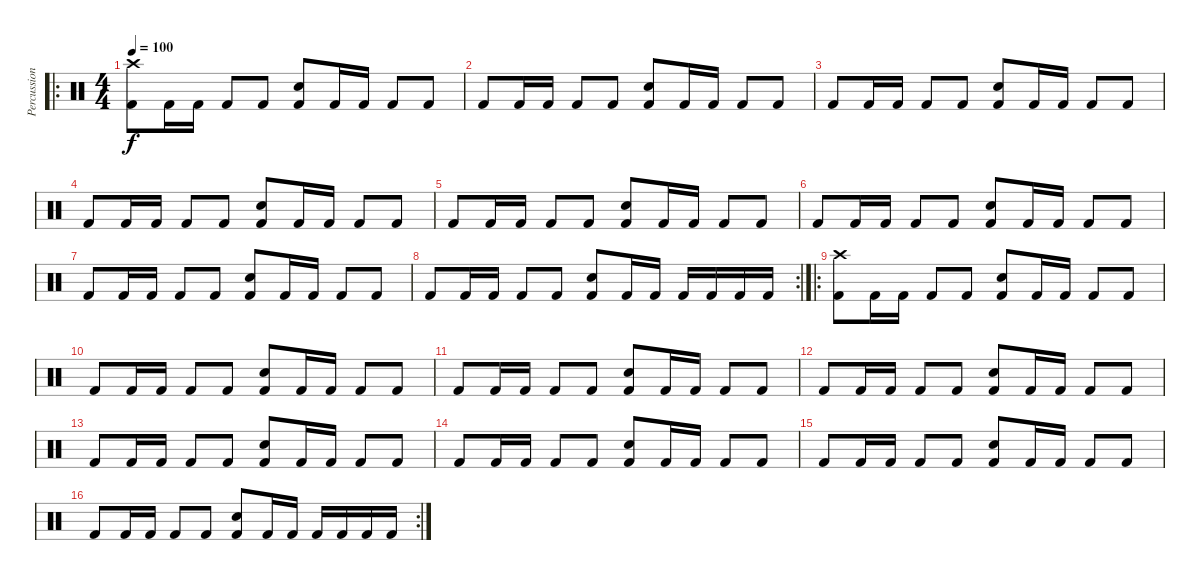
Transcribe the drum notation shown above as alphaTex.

\track ("Percussions" "Percussion") {instrument percussion}
\staff {score}
\articulation defaults
\ro
\ts (4 4)
\tempo 100
\clef neutral
\ks c
("Crash high (hit)" "Kick (hit) 2").8{dy f} "Kick (hit) 2".16 "Kick (hit) 2".16 "Kick (hit) 2".8 "Kick (hit) 2".8 ("Snare (hit) 2" "Kick (hit) 2").8 "Kick (hit) 2".16 "Kick (hit) 2".16 "Kick (hit) 2".8 "Kick (hit) 2".8 |
"Kick (hit) 2".8 "Kick (hit) 2".16 "Kick (hit) 2".16 "Kick (hit) 2".8 "Kick (hit) 2".8 ("Snare (hit) 2" "Kick (hit) 2").8 "Kick (hit) 2".16 "Kick (hit) 2".16 "Kick (hit) 2".8 "Kick (hit) 2".8 |
"Kick (hit) 2".8 "Kick (hit) 2".16 "Kick (hit) 2".16 "Kick (hit) 2".8 "Kick (hit) 2".8 ("Snare (hit) 2" "Kick (hit) 2").8 "Kick (hit) 2".16 "Kick (hit) 2".16 "Kick (hit) 2".8 "Kick (hit) 2".8 |
"Kick (hit) 2".8 "Kick (hit) 2".16 "Kick (hit) 2".16 "Kick (hit) 2".8 "Kick (hit) 2".8 ("Snare (hit) 2" "Kick (hit) 2").8 "Kick (hit) 2".16 "Kick (hit) 2".16 "Kick (hit) 2".8 "Kick (hit) 2".8 |
"Kick (hit) 2".8 "Kick (hit) 2".16 "Kick (hit) 2".16 "Kick (hit) 2".8 "Kick (hit) 2".8 ("Snare (hit) 2" "Kick (hit) 2").8 "Kick (hit) 2".16 "Kick (hit) 2".16 "Kick (hit) 2".8 "Kick (hit) 2".8 |
"Kick (hit) 2".8 "Kick (hit) 2".16 "Kick (hit) 2".16 "Kick (hit) 2".8 "Kick (hit) 2".8 ("Snare (hit) 2" "Kick (hit) 2").8 "Kick (hit) 2".16 "Kick (hit) 2".16 "Kick (hit) 2".8 "Kick (hit) 2".8 |
"Kick (hit) 2".8 "Kick (hit) 2".16 "Kick (hit) 2".16 "Kick (hit) 2".8 "Kick (hit) 2".8 ("Snare (hit) 2" "Kick (hit) 2").8 "Kick (hit) 2".16 "Kick (hit) 2".16 "Kick (hit) 2".8 "Kick (hit) 2".8 |
\rc 2 "Kick (hit) 2".8 "Kick (hit) 2".16 "Kick (hit) 2".16 "Kick (hit) 2".8 "Kick (hit) 2".8
("Snare (hit) 2" "Kick (hit) 2").8 "Kick (hit) 2".16 "Kick (hit) 2".16 "Kick (hit) 2".16 "Kick (hit) 2".16 "Kick (hit) 2".16 "Kick (hit) 2".16 |
\ro
("Crash high (hit)" "Kick (hit) 2").8 "Kick (hit) 2".16 "Kick (hit) 2".16 "Kick (hit) 2".8 "Kick (hit) 2".8 ("Snare (hit) 2" "Kick (hit) 2").8 "Kick (hit) 2".16 "Kick (hit) 2".16 "Kick (hit) 2".8 "Kick (hit) 2".8 |
"Kick (hit) 2".8 "Kick (hit) 2".16 "Kick (hit) 2".16 "Kick (hit) 2".8 "Kick (hit) 2".8 ("Snare (hit) 2" "Kick (hit) 2").8 "Kick (hit) 2".16 "Kick (hit) 2".16 "Kick (hit) 2".8 "Kick (hit) 2".8 |
"Kick (hit) 2".8 "Kick (hit) 2".16 "Kick (hit) 2".16 "Kick (hit) 2".8 "Kick (hit) 2".8 ("Snare (hit) 2" "Kick (hit) 2").8 "Kick (hit) 2".16 "Kick (hit) 2".16 "Kick (hit) 2".8 "Kick (hit) 2".8 |
"Kick (hit) 2".8 "Kick (hit) 2".16 "Kick (hit) 2".16 "Kick (hit) 2".8 "Kick (hit) 2".8 ("Snare (hit) 2" "Kick (hit) 2").8 "Kick (hit) 2".16 "Kick (hit) 2".16 "Kick (hit) 2".8 "Kick (hit) 2".8 |
"Kick (hit) 2".8 "Kick (hit) 2".16 "Kick (hit) 2".16 "Kick (hit) 2".8 "Kick (hit) 2".8 ("Snare (hit) 2" "Kick (hit) 2").8 "Kick (hit) 2".16 "Kick (hit) 2".16 "Kick (hit) 2".8 "Kick (hit) 2".8 |
"Kick (hit) 2".8 "Kick (hit) 2".16 "Kick (hit) 2".16 "Kick (hit) 2".8 "Kick (hit) 2".8 ("Snare (hit) 2" "Kick (hit) 2").8 "Kick (hit) 2".16 "Kick (hit) 2".16 "Kick (hit) 2".8 "Kick (hit) 2".8 |
"Kick (hit) 2".8 "Kick (hit) 2".16 "Kick (hit) 2".16 "Kick (hit) 2".8 "Kick (hit) 2".8 ("Snare (hit) 2" "Kick (hit) 2").8 "Kick (hit) 2".16 "Kick (hit) 2".16 "Kick (hit) 2".8 "Kick (hit) 2".8 |
\rc 2 "Kick (hit) 2".8 "Kick (hit) 2".16 "Kick (hit) 2".16 "Kick (hit) 2".8 "Kick (hit) 2".8
("Snare (hit) 2" "Kick (hit) 2").8 "Kick (hit) 2".16 "Kick (hit) 2".16 "Kick (hit) 2".16 "Kick (hit) 2".16 "Kick (hit) 2".16 "Kick (hit) 2".16
